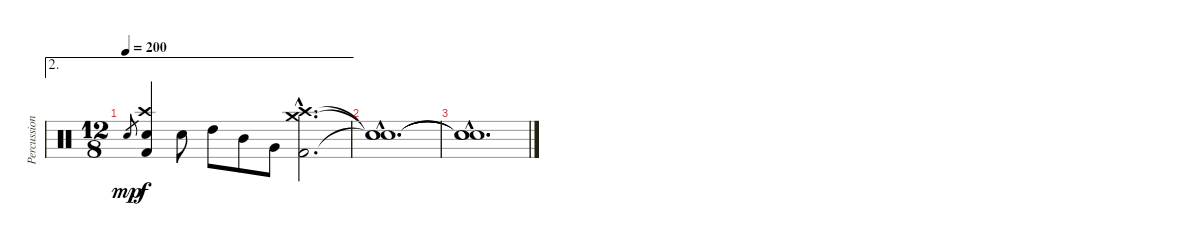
\track ("Percussion" "Percussion") {instrument percussion}
\staff {score}
\articulation defaults
\ae 2
\ts (12 8)
\tempo 200
\clef neutral
\ks c "Electric Snare (hit)".8{gr dy mp}
("Crash high (hit)" "Electric Snare (hit)" "Kick (hit) 2").4{dy f} "Electric Snare (hit)".8 "High Tom (hit)".8 "Mid Tom (hit)".8 "Very Low Tom (hit)".8 ("Crash high (hit)"{hac} "Crash medium (hit)"{hac} "Kick (hit) 2"{hac}).2{d} |
("Snare (hit)"{hac t} "Snare (hit)"{hac t} "Snare (hit)"{hac t}).1{d} |
("Snare (hit)"{hac t} "Snare (hit)"{hac t} "Snare (hit)"{hac t}).1{d}
